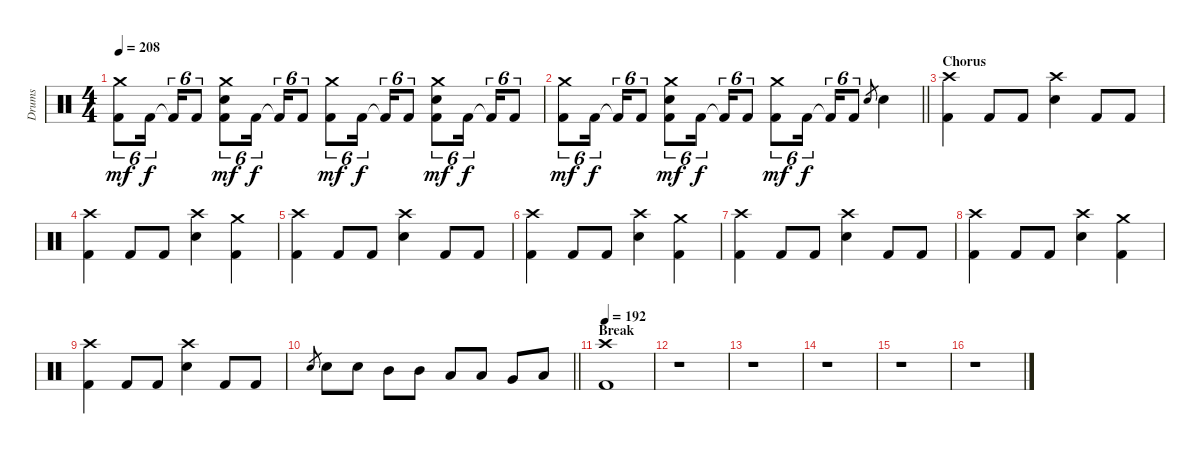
\track ("Drums" "Drums") {instrument percussion}
\staff {score}
\articulation defaults
\ts (4 4)
\tempo 208
\clef neutral
\ks c
("Crash medium (hit)" "Kick (hit) 2").8{tu (6 4) dy mf} "Kick (hit) 2".16{tu (6 4) dy f} "Kick (hit) 2"{t}.16{tu (6 4)} "Kick (hit) 2".8{tu (6 4)} ("Crash medium (hit)" "Electric Snare (hit)" "Kick (hit) 2").8{tu (6 4) dy mf} "Kick (hit) 2".16{tu (6 4) dy f} "Kick (hit) 2"{t}.16{tu (6 4)} "Kick (hit) 2".8{tu (6 4)} ("Crash medium (hit)" "Kick (hit) 2").8{tu (6 4) dy mf} "Kick (hit) 2".16{tu (6 4) dy f} "Kick (hit) 2"{t}.16{tu (6 4)} "Kick (hit) 2".8{tu (6 4)} ("Crash medium (hit)" "Electric Snare (hit)" "Kick (hit) 2").8{tu (6 4) dy mf} "Kick (hit) 2".16{tu (6 4) dy f} "Kick (hit) 2"{t}.16{tu (6 4)} "Kick (hit) 2".8{tu (6 4)} |
\barLineRight lightlight
("Crash medium (hit)" "Kick (hit) 2").8{tu (6 4) dy mf} "Kick (hit) 2".16{tu (6 4) dy f} "Kick (hit) 2"{t}.16{tu (6 4)} "Kick (hit) 2".8{tu (6 4)} ("Crash medium (hit)" "Electric Snare (hit)" "Kick (hit) 2").8{tu (6 4) dy mf} "Kick (hit) 2".16{tu (6 4) dy f} "Kick (hit) 2"{t}.16{tu (6 4)} "Kick (hit) 2".8{tu (6 4)} ("Crash medium (hit)" "Kick (hit) 2").8{tu (6 4) dy mf} "Kick (hit) 2".16{tu (6 4) dy f} "Kick (hit) 2"{t}.16{tu (6 4)} "Kick (hit) 2".8{tu (6 4)} "Electric Snare (hit)".8{gr} "Electric Snare (hit)".4 |
\section ("" "Chorus")
("Crash high (hit)" "Kick (hit) 2").4 "Kick (hit) 2".8 "Kick (hit) 2".8 ("Crash high (hit)" "Electric Snare (hit)").4 "Kick (hit) 2".8 "Kick (hit) 2".8 |
("Crash high (hit)" "Kick (hit) 2").4 "Kick (hit) 2".8 "Kick (hit) 2".8 ("Crash high (hit)" "Electric Snare (hit)").4 ("Crash medium (hit)" "Kick (hit) 2").4 |
("Crash high (hit)" "Kick (hit) 2").4 "Kick (hit) 2".8 "Kick (hit) 2".8 ("Crash high (hit)" "Electric Snare (hit)").4 "Kick (hit) 2".8 "Kick (hit) 2".8 |
("Crash high (hit)" "Kick (hit) 2").4 "Kick (hit) 2".8 "Kick (hit) 2".8 ("Crash high (hit)" "Electric Snare (hit)").4 ("Crash medium (hit)" "Kick (hit) 2").4 |
("Crash high (hit)" "Kick (hit) 2").4 "Kick (hit) 2".8 "Kick (hit) 2".8 ("Crash high (hit)" "Electric Snare (hit)").4 "Kick (hit) 2".8 "Kick (hit) 2".8 |
("Crash high (hit)" "Kick (hit) 2").4 "Kick (hit) 2".8 "Kick (hit) 2".8 ("Crash high (hit)" "Electric Snare (hit)").4 ("Crash medium (hit)" "Kick (hit) 2").4 |
("Crash high (hit)" "Kick (hit) 2").4 "Kick (hit) 2".8 "Kick (hit) 2".8 ("Crash high (hit)" "Electric Snare (hit)").4 "Kick (hit) 2".8 "Kick (hit) 2".8 |
\barLineRight lightlight "Electric Snare (hit)".8{gr} "Electric Snare (hit)".8 "Electric Snare (hit)".8 "Mid Tom (hit)".8 "Mid Tom (hit)".8 "Low Tom (hit)".8 "Low Tom (hit)".8 "Very Low Tom (hit)".8 "Low Floor Tom (hit)".8
|
\section ("" "Break")
\tempo 192
("Crash high (hit)" "Kick (hit) 2").1 |
r.1 |
r.1 |
r.1 |
r.1 |
r.1
